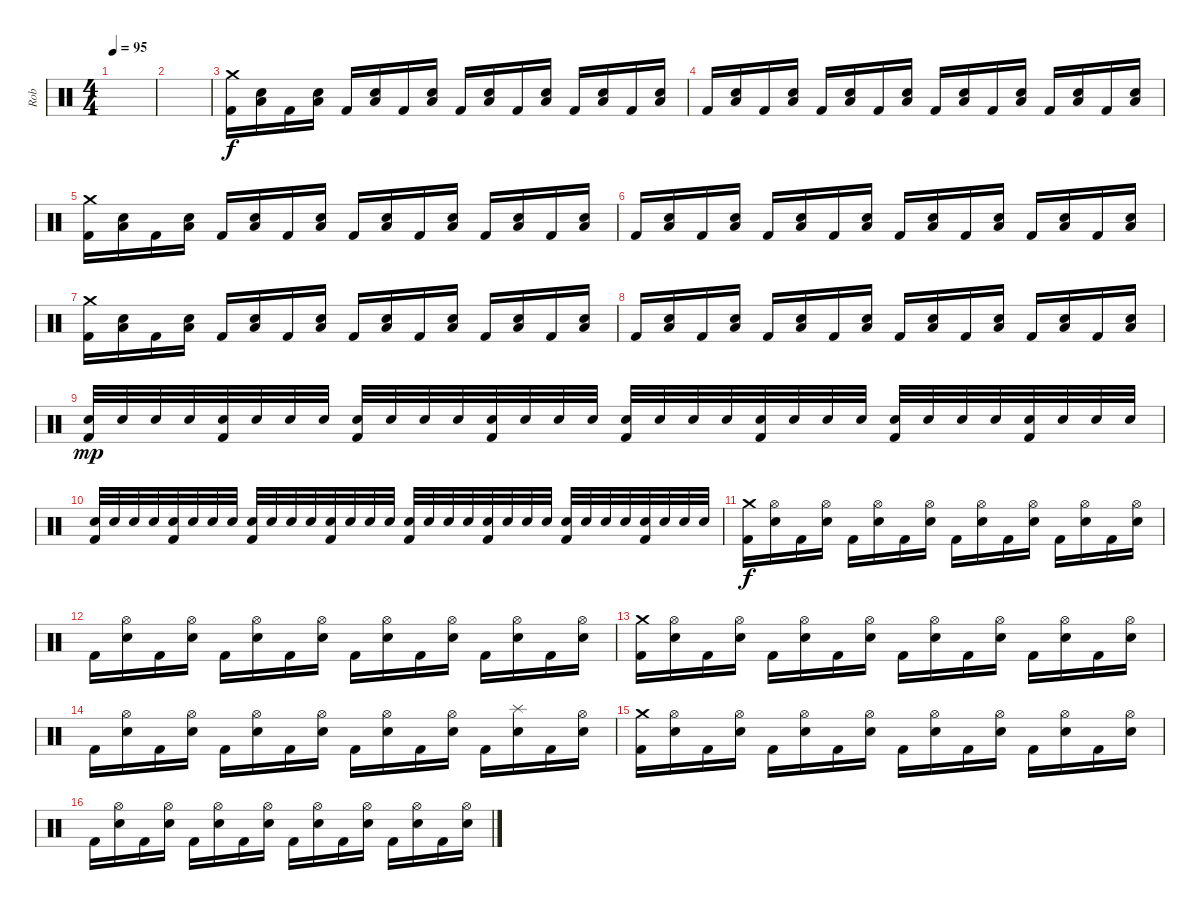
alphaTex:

\track ("Rob" "Rob") {instrument percussion}
\staff {score}
\articulation defaults
\ts (4 4)
\tempo 95
\clef neutral
\ks c
|
|
("Crash medium (hit)" "Kick (hit) 2").16 ("Low Tom (hit)" "Electric Snare (hit)").16 "Kick (hit) 2".16 ("Low Tom (hit)" "Electric Snare (hit)").16 "Kick (hit) 2".16 ("Low Tom (hit)" "Electric Snare (hit)").16 "Kick (hit) 2".16 ("Low Tom (hit)" "Electric Snare (hit)").16 "Kick (hit) 2".16 ("Low Tom (hit)" "Electric Snare (hit)").16 "Kick (hit) 2".16 ("Low Tom (hit)" "Electric Snare (hit)").16 "Kick (hit) 2".16 ("Low Tom (hit)" "Electric Snare (hit)").16 "Kick (hit) 2".16 ("Low Tom (hit)" "Electric Snare (hit)").16 |
"Kick (hit) 2".16 ("Low Tom (hit)" "Electric Snare (hit)").16 "Kick (hit) 2".16 ("Low Tom (hit)" "Electric Snare (hit)").16 "Kick (hit) 2".16 ("Low Tom (hit)" "Electric Snare (hit)").16 "Kick (hit) 2".16 ("Low Tom (hit)" "Electric Snare (hit)").16 "Kick (hit) 2".16 ("Low Tom (hit)" "Electric Snare (hit)").16 "Kick (hit) 2".16 ("Low Tom (hit)" "Electric Snare (hit)").16 "Kick (hit) 2".16 ("Low Tom (hit)" "Electric Snare (hit)").16 "Kick (hit) 2".16 ("Low Tom (hit)" "Electric Snare (hit)").16 |
("Crash medium (hit)" "Kick (hit) 2").16 ("Low Tom (hit)" "Electric Snare (hit)").16 "Kick (hit) 2".16 ("Low Tom (hit)" "Electric Snare (hit)").16 "Kick (hit) 2".16 ("Low Tom (hit)" "Electric Snare (hit)").16 "Kick (hit) 2".16 ("Low Tom (hit)" "Electric Snare (hit)").16 "Kick (hit) 2".16 ("Low Tom (hit)" "Electric Snare (hit)").16 "Kick (hit) 2".16 ("Low Tom (hit)" "Electric Snare (hit)").16 "Kick (hit) 2".16 ("Low Tom (hit)" "Electric Snare (hit)").16 "Kick (hit) 2".16 ("Low Tom (hit)" "Electric Snare (hit)").16 |
"Kick (hit) 2".16 ("Low Tom (hit)" "Electric Snare (hit)").16 "Kick (hit) 2".16 ("Low Tom (hit)" "Electric Snare (hit)").16 "Kick (hit) 2".16 ("Low Tom (hit)" "Electric Snare (hit)").16 "Kick (hit) 2".16 ("Low Tom (hit)" "Electric Snare (hit)").16 "Kick (hit) 2".16 ("Low Tom (hit)" "Electric Snare (hit)").16 "Kick (hit) 2".16 ("Low Tom (hit)" "Electric Snare (hit)").16 "Kick (hit) 2".16 ("Low Tom (hit)" "Electric Snare (hit)").16 "Kick (hit) 2".16 ("Low Tom (hit)" "Electric Snare (hit)").16 |
("Crash medium (hit)" "Kick (hit) 2").16 ("Low Tom (hit)" "Electric Snare (hit)").16 "Kick (hit) 2".16 ("Low Tom (hit)" "Electric Snare (hit)").16 "Kick (hit) 2".16 ("Low Tom (hit)" "Electric Snare (hit)").16 "Kick (hit) 2".16 ("Low Tom (hit)" "Electric Snare (hit)").16 "Kick (hit) 2".16 ("Low Tom (hit)" "Electric Snare (hit)").16 "Kick (hit) 2".16 ("Low Tom (hit)" "Electric Snare (hit)").16 "Kick (hit) 2".16 ("Low Tom (hit)" "Electric Snare (hit)").16 "Kick (hit) 2".16 ("Low Tom (hit)" "Electric Snare (hit)").16 |
"Kick (hit) 2".16 ("Low Tom (hit)" "Electric Snare (hit)").16 "Kick (hit) 2".16 ("Low Tom (hit)" "Electric Snare (hit)").16 "Kick (hit) 2".16 ("Low Tom (hit)" "Electric Snare (hit)").16 "Kick (hit) 2".16 ("Low Tom (hit)" "Electric Snare (hit)").16 "Kick (hit) 2".16 ("Low Tom (hit)" "Electric Snare (hit)").16 "Kick (hit) 2".16 ("Low Tom (hit)" "Electric Snare (hit)").16 "Kick (hit) 2".16 ("Low Tom (hit)" "Electric Snare (hit)").16 "Kick (hit) 2".16 ("Low Tom (hit)" "Electric Snare (hit)").16 |
("Electric Snare (hit)" "Kick (hit) 2").32{dy mp} "Electric Snare (hit)".32 "Electric Snare (hit)".32 "Electric Snare (hit)".32 ("Electric Snare (hit)" "Kick (hit) 2").32 "Electric Snare (hit)".32 "Electric Snare (hit)".32 "Electric Snare (hit)".32 ("Electric Snare (hit)" "Kick (hit) 2").32 "Electric Snare (hit)".32 "Electric Snare (hit)".32 "Electric Snare (hit)".32 ("Electric Snare (hit)" "Kick (hit) 2").32 "Electric Snare (hit)".32 "Electric Snare (hit)".32 "Electric Snare (hit)".32 ("Electric Snare (hit)" "Kick (hit) 2").32 "Electric Snare (hit)".32 "Electric Snare (hit)".32 "Electric Snare (hit)".32 ("Electric Snare (hit)" "Kick (hit) 2").32 "Electric Snare (hit)".32 "Electric Snare (hit)".32 "Electric Snare (hit)".32 ("Electric Snare (hit)" "Kick (hit) 2").32 "Electric Snare (hit)".32 "Electric Snare (hit)".32 "Electric Snare (hit)".32 ("Electric Snare (hit)" "Kick (hit) 2").32 "Electric Snare (hit)".32 "Electric Snare (hit)".32 "Electric Snare (hit)".32 |
("Electric Snare (hit)" "Kick (hit) 2").32 "Electric Snare (hit)".32 "Electric Snare (hit)".32 "Electric Snare (hit)".32 ("Electric Snare (hit)" "Kick (hit) 2").32 "Electric Snare (hit)".32 "Electric Snare (hit)".32 "Electric Snare (hit)".32 ("Electric Snare (hit)" "Kick (hit) 2").32 "Electric Snare (hit)".32 "Electric Snare (hit)".32 "Electric Snare (hit)".32 ("Electric Snare (hit)" "Kick (hit) 2").32 "Electric Snare (hit)".32 "Electric Snare (hit)".32 "Electric Snare (hit)".32 ("Electric Snare (hit)" "Kick (hit) 2").32 "Electric Snare (hit)".32 "Electric Snare (hit)".32 "Electric Snare (hit)".32 ("Electric Snare (hit)" "Kick (hit) 2").32 "Electric Snare (hit)".32 "Electric Snare (hit)".32 "Electric Snare (hit)".32 ("Electric Snare (hit)" "Kick (hit) 2").32 "Electric Snare (hit)".32 "Electric Snare (hit)".32 "Electric Snare (hit)".32 ("Electric Snare (hit)" "Kick (hit) 2").32 "Electric Snare (hit)".32 "Electric Snare (hit)".32 "Electric Snare (hit)".32 |
("Crash medium (hit)" "Kick (hit) 2").16{dy f} ("Hi-Hat (open)" "Electric Snare (hit)").16 "Kick (hit) 2".16 ("Hi-Hat (open)" "Electric Snare (hit)").16 "Kick (hit) 2".16 ("Hi-Hat (open)" "Electric Snare (hit)").16 "Kick (hit) 2".16 ("Hi-Hat (open)" "Electric Snare (hit)").16 "Kick (hit) 2".16 ("Hi-Hat (open)" "Electric Snare (hit)").16 "Kick (hit) 2".16 ("Hi-Hat (open)" "Electric Snare (hit)").16 "Kick (hit) 2".16 ("Hi-Hat (open)" "Electric Snare (hit)").16 "Kick (hit) 2".16 ("Hi-Hat (open)" "Electric Snare (hit)").16 |
"Kick (hit) 2".16 ("Hi-Hat (open)" "Electric Snare (hit)").16 "Kick (hit) 2".16 ("Hi-Hat (open)" "Electric Snare (hit)").16 "Kick (hit) 2".16 ("Hi-Hat (open)" "Electric Snare (hit)").16 "Kick (hit) 2".16 ("Hi-Hat (open)" "Electric Snare (hit)").16 "Kick (hit) 2".16 ("Hi-Hat (open)" "Electric Snare (hit)").16 "Kick (hit) 2".16 ("Hi-Hat (open)" "Electric Snare (hit)").16 "Kick (hit) 2".16 ("Hi-Hat (open)" "Electric Snare (hit)").16 "Kick (hit) 2".16 ("Hi-Hat (open)" "Electric Snare (hit)").16 |
("Crash medium (hit)" "Kick (hit) 2").16 ("Hi-Hat (open)" "Electric Snare (hit)").16 "Kick (hit) 2".16 ("Hi-Hat (open)" "Electric Snare (hit)").16 "Kick (hit) 2".16 ("Hi-Hat (open)" "Electric Snare (hit)").16 "Kick (hit) 2".16 ("Hi-Hat (open)" "Electric Snare (hit)").16 "Kick (hit) 2".16 ("Hi-Hat (open)" "Electric Snare (hit)").16 "Kick (hit) 2".16 ("Hi-Hat (open)" "Electric Snare (hit)").16 "Kick (hit) 2".16 ("Hi-Hat (open)" "Electric Snare (hit)").16 "Kick (hit) 2".16 ("Hi-Hat (open)" "Electric Snare (hit)").16 |
"Kick (hit) 2".16 ("Hi-Hat (open)" "Electric Snare (hit)").16 "Kick (hit) 2".16 ("Hi-Hat (open)" "Electric Snare (hit)").16 "Kick (hit) 2".16 ("Hi-Hat (open)" "Electric Snare (hit)").16 "Kick (hit) 2".16 ("Hi-Hat (open)" "Electric Snare (hit)").16 "Kick (hit) 2".16 ("Hi-Hat (open)" "Electric Snare (hit)").16 "Kick (hit) 2".16 ("Hi-Hat (open)" "Electric Snare (hit)").16 "Kick (hit) 2".16 ("Splash (hit)" "Electric Snare (hit)").16 "Kick (hit) 2".16 ("Hi-Hat (open)" "Electric Snare (hit)").16 |
("Crash medium (hit)" "Kick (hit) 2").16 ("Hi-Hat (open)" "Electric Snare (hit)").16 "Kick (hit) 2".16 ("Hi-Hat (open)" "Electric Snare (hit)").16 "Kick (hit) 2".16 ("Hi-Hat (open)" "Electric Snare (hit)").16 "Kick (hit) 2".16 ("Hi-Hat (open)" "Electric Snare (hit)").16 "Kick (hit) 2".16 ("Hi-Hat (open)" "Electric Snare (hit)").16 "Kick (hit) 2".16 ("Hi-Hat (open)" "Electric Snare (hit)").16 "Kick (hit) 2".16 ("Hi-Hat (open)" "Electric Snare (hit)").16 "Kick (hit) 2".16 ("Hi-Hat (open)" "Electric Snare (hit)").16 |
"Kick (hit) 2".16 ("Hi-Hat (open)" "Electric Snare (hit)").16 "Kick (hit) 2".16 ("Hi-Hat (open)" "Electric Snare (hit)").16 "Kick (hit) 2".16 ("Hi-Hat (open)" "Electric Snare (hit)").16 "Kick (hit) 2".16 ("Hi-Hat (open)" "Electric Snare (hit)").16 "Kick (hit) 2".16 ("Hi-Hat (open)" "Electric Snare (hit)").16 "Kick (hit) 2".16 ("Hi-Hat (open)" "Electric Snare (hit)").16 "Kick (hit) 2".16 ("Hi-Hat (open)" "Electric Snare (hit)").16 "Kick (hit) 2".16 ("Hi-Hat (open)" "Electric Snare (hit)").16
